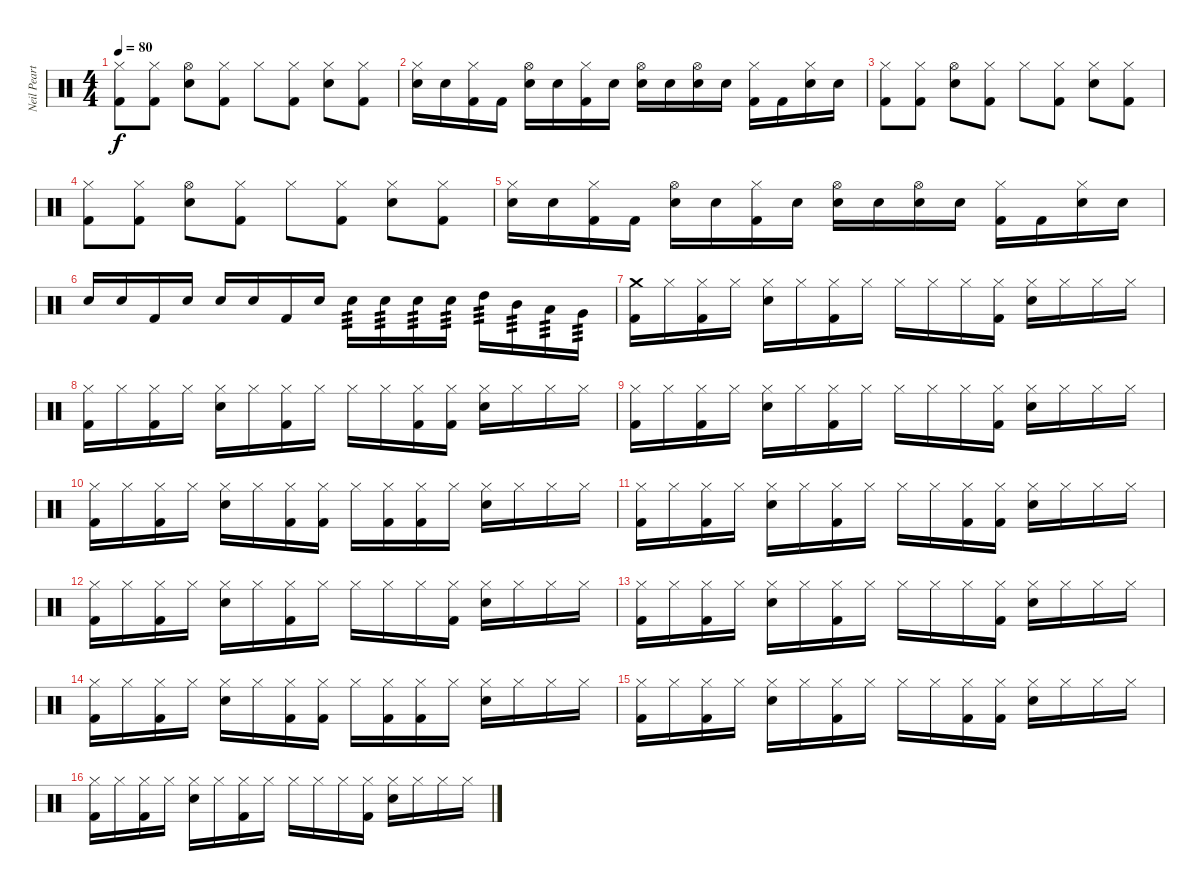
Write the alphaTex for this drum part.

\track ("Neil Peart" "Neil Peart") {instrument percussion}
\staff {score}
\articulation defaults
\ts (4 4)
\tempo 80
\clef neutral
\ks c
("Hi-Hat (closed)" "Kick (hit) 2").8{dy f} ("Hi-Hat (closed)" "Kick (hit) 2").8 ("Hi-Hat (open)" "Electric Snare (hit)").8 ("Hi-Hat (closed)" "Kick (hit) 2").8 "Hi-Hat (closed)".8 ("Hi-Hat (closed)" "Kick (hit) 2").8 ("Hi-Hat (closed)" "Electric Snare (hit)").8 ("Hi-Hat (closed)" "Kick (hit) 2").8 |
("Hi-Hat (closed)" "Electric Snare (hit)").16 "Snare (hit)"{x}.16 ("Hi-Hat (closed)" "Kick (hit) 2").16 "Kick (hit) 2".16 ("Hi-Hat (open)" "Electric Snare (hit)").16 "Snare (hit)"{x}.16 ("Hi-Hat (closed)" "Kick (hit) 2").16 "Snare (hit)"{x}.16 ("Hi-Hat (open)" "Electric Snare (hit)").16 "Snare (hit)"{x}.16 ("Hi-Hat (open)" "Electric Snare (hit)").16 "Snare (hit)"{x}.16 ("Hi-Hat (closed)" "Kick (hit) 2").16 "Kick (hit) 2".16 ("Hi-Hat (closed)" "Electric Snare (hit)").16 "Snare (hit)"{x}.16 |
("Hi-Hat (closed)" "Kick (hit) 2").8 ("Hi-Hat (closed)" "Kick (hit) 2").8 ("Hi-Hat (open)" "Electric Snare (hit)").8 ("Hi-Hat (closed)" "Kick (hit) 2").8 "Hi-Hat (closed)".8 ("Hi-Hat (closed)" "Kick (hit) 2").8 ("Hi-Hat (closed)" "Electric Snare (hit)").8 ("Hi-Hat (closed)" "Kick (hit) 2").8 |
("Hi-Hat (closed)" "Kick (hit) 2").8 ("Hi-Hat (closed)" "Kick (hit) 2").8 ("Hi-Hat (open)" "Electric Snare (hit)").8 ("Hi-Hat (closed)" "Kick (hit) 2").8 "Hi-Hat (closed)".8 ("Hi-Hat (closed)" "Kick (hit) 2").8 ("Hi-Hat (closed)" "Electric Snare (hit)").8 ("Hi-Hat (closed)" "Kick (hit) 2").8 |
("Hi-Hat (closed)" "Electric Snare (hit)").16 "Snare (hit)"{x}.16 ("Hi-Hat (closed)" "Kick (hit) 2").16 "Kick (hit) 2".16 ("Hi-Hat (open)" "Electric Snare (hit)").16 "Snare (hit)"{x}.16 ("Hi-Hat (closed)" "Kick (hit) 2").16 "Snare (hit)"{x}.16 ("Hi-Hat (open)" "Electric Snare (hit)").16 "Snare (hit)"{x}.16 ("Hi-Hat (open)" "Electric Snare (hit)").16 "Snare (hit)"{x}.16 ("Hi-Hat (closed)" "Kick (hit) 2").16 "Kick (hit) 2".16 ("Hi-Hat (closed)" "Electric Snare (hit)").16 "Snare (hit)"{x}.16 |
"Electric Snare (hit)".16 "Electric Snare (hit)".16 "Kick (hit) 2".16 "Snare (hit)"{x}.16 "Electric Snare (hit)".16 "Electric Snare (hit)".16 "Kick (hit) 2".16 "Snare (hit)"{x}.16 "Electric Snare (hit)".16{tp 3} "Electric Snare (hit)".16{tp 3} "Electric Snare (hit)".16{tp 3} "Electric Snare (hit)".16{tp 3} "High Tom (hit)".16{tp 3} "Mid Tom (hit)".16{tp 3} "Low Tom (hit)".16{tp 3} "Very Low Tom (hit)".16{tp 3} |
("Crash medium (hit)" "Kick (hit) 2").16 "Hi-Hat (closed)".16 ("Hi-Hat (closed)" "Kick (hit) 2").16 "Hi-Hat (closed)".16 ("Hi-Hat (closed)" "Electric Snare (hit)").16 "Hi-Hat (closed)".16 ("Hi-Hat (closed)" "Kick (hit) 2").16 "Hi-Hat (closed)".16 "Hi-Hat (closed)".16 "Hi-Hat (closed)".16 "Hi-Hat (closed)".16 ("Hi-Hat (closed)" "Kick (hit) 2").16 ("Hi-Hat (closed)" "Electric Snare (hit)").16 "Hi-Hat (closed)".16 "Hi-Hat (closed)".16 "Hi-Hat (closed)".16 |
("Hi-Hat (closed)" "Kick (hit) 2").16 "Hi-Hat (closed)".16 ("Hi-Hat (closed)" "Kick (hit) 2").16 "Hi-Hat (closed)".16 ("Hi-Hat (closed)" "Electric Snare (hit)").16 "Hi-Hat (closed)".16 ("Hi-Hat (closed)" "Kick (hit) 2").16 "Hi-Hat (closed)".16 "Hi-Hat (closed)".16 "Hi-Hat (closed)".16 ("Hi-Hat (closed)" "Kick (hit) 2").16 ("Hi-Hat (closed)" "Kick (hit) 2").16 ("Hi-Hat (closed)" "Electric Snare (hit)").16 "Hi-Hat (closed)".16 "Hi-Hat (closed)".16 "Hi-Hat (closed)".16 |
("Hi-Hat (closed)" "Kick (hit) 2").16 "Hi-Hat (closed)".16 ("Hi-Hat (closed)" "Kick (hit) 2").16 "Hi-Hat (closed)".16 ("Hi-Hat (closed)" "Electric Snare (hit)").16 "Hi-Hat (closed)".16 ("Hi-Hat (closed)" "Kick (hit) 2").16 "Hi-Hat (closed)".16 "Hi-Hat (closed)".16 "Hi-Hat (closed)".16 "Hi-Hat (closed)".16 ("Hi-Hat (closed)" "Kick (hit) 2").16 ("Hi-Hat (closed)" "Electric Snare (hit)").16 "Hi-Hat (closed)".16 "Hi-Hat (closed)".16 "Hi-Hat (closed)".16 |
("Hi-Hat (closed)" "Kick (hit) 2").16 "Hi-Hat (closed)".16 ("Hi-Hat (closed)" "Kick (hit) 2").16 "Hi-Hat (closed)".16 ("Hi-Hat (closed)" "Electric Snare (hit)").16 "Hi-Hat (closed)".16 ("Hi-Hat (closed)" "Kick (hit) 2").16 ("Hi-Hat (closed)" "Kick (hit) 2").16 "Hi-Hat (closed)".16 ("Hi-Hat (closed)" "Kick (hit) 2").16 ("Hi-Hat (closed)" "Kick (hit) 2").16 "Hi-Hat (closed)".16 ("Hi-Hat (closed)" "Electric Snare (hit)").16 "Hi-Hat (closed)".16 "Hi-Hat (closed)".16 "Hi-Hat (closed)".16 |
("Hi-Hat (closed)" "Kick (hit) 2").16 "Hi-Hat (closed)".16 ("Hi-Hat (closed)" "Kick (hit) 2").16 "Hi-Hat (closed)".16 ("Hi-Hat (closed)" "Electric Snare (hit)").16 "Hi-Hat (closed)".16 ("Hi-Hat (closed)" "Kick (hit) 2").16 "Hi-Hat (closed)".16 "Hi-Hat (closed)".16 "Hi-Hat (closed)".16 ("Hi-Hat (closed)" "Kick (hit) 2").16 ("Hi-Hat (closed)" "Kick (hit) 2").16 ("Hi-Hat (closed)" "Electric Snare (hit)").16 "Hi-Hat (closed)".16 "Hi-Hat (closed)".16 "Hi-Hat (closed)".16 |
("Hi-Hat (closed)" "Kick (hit) 2").16 "Hi-Hat (closed)".16 ("Hi-Hat (closed)" "Kick (hit) 2").16 "Hi-Hat (closed)".16 ("Hi-Hat (closed)" "Electric Snare (hit)").16 "Hi-Hat (closed)".16 ("Hi-Hat (closed)" "Kick (hit) 2").16 "Hi-Hat (closed)".16 "Hi-Hat (closed)".16 "Hi-Hat (closed)".16 "Hi-Hat (closed)".16 ("Hi-Hat (closed)" "Kick (hit) 2").16 ("Hi-Hat (closed)" "Electric Snare (hit)").16 "Hi-Hat (closed)".16 "Hi-Hat (closed)".16 "Hi-Hat (closed)".16 |
("Hi-Hat (closed)" "Kick (hit) 2").16 "Hi-Hat (closed)".16 ("Hi-Hat (closed)" "Kick (hit) 2").16 "Hi-Hat (closed)".16 ("Hi-Hat (closed)" "Electric Snare (hit)").16 "Hi-Hat (closed)".16 ("Hi-Hat (closed)" "Kick (hit) 2").16 "Hi-Hat (closed)".16 "Hi-Hat (closed)".16 "Hi-Hat (closed)".16 "Hi-Hat (closed)".16 ("Hi-Hat (closed)" "Kick (hit) 2").16 ("Hi-Hat (closed)" "Electric Snare (hit)").16 "Hi-Hat (closed)".16 "Hi-Hat (closed)".16 "Hi-Hat (closed)".16 |
("Hi-Hat (closed)" "Kick (hit) 2").16 "Hi-Hat (closed)".16 ("Hi-Hat (closed)" "Kick (hit) 2").16 "Hi-Hat (closed)".16 ("Hi-Hat (closed)" "Electric Snare (hit)").16 "Hi-Hat (closed)".16 ("Hi-Hat (closed)" "Kick (hit) 2").16 ("Hi-Hat (closed)" "Kick (hit) 2").16 "Hi-Hat (closed)".16 ("Hi-Hat (closed)" "Kick (hit) 2").16 ("Hi-Hat (closed)" "Kick (hit) 2").16 "Hi-Hat (closed)".16 ("Hi-Hat (closed)" "Electric Snare (hit)").16 "Hi-Hat (closed)".16 "Hi-Hat (closed)".16 "Hi-Hat (closed)".16 |
("Hi-Hat (closed)" "Kick (hit) 2").16 "Hi-Hat (closed)".16 ("Hi-Hat (closed)" "Kick (hit) 2").16 "Hi-Hat (closed)".16 ("Hi-Hat (closed)" "Electric Snare (hit)").16 "Hi-Hat (closed)".16 ("Hi-Hat (closed)" "Kick (hit) 2").16 "Hi-Hat (closed)".16 "Hi-Hat (closed)".16 "Hi-Hat (closed)".16 ("Hi-Hat (closed)" "Kick (hit) 2").16 ("Hi-Hat (closed)" "Kick (hit) 2").16 ("Hi-Hat (closed)" "Electric Snare (hit)").16 "Hi-Hat (closed)".16 "Hi-Hat (closed)".16 "Hi-Hat (closed)".16 |
("Hi-Hat (closed)" "Kick (hit) 2").16 "Hi-Hat (closed)".16 ("Hi-Hat (closed)" "Kick (hit) 2").16 "Hi-Hat (closed)".16 ("Hi-Hat (closed)" "Electric Snare (hit)").16 "Hi-Hat (closed)".16 ("Hi-Hat (closed)" "Kick (hit) 2").16 "Hi-Hat (closed)".16 "Hi-Hat (closed)".16 "Hi-Hat (closed)".16 "Hi-Hat (closed)".16 ("Hi-Hat (closed)" "Kick (hit) 2").16 ("Hi-Hat (closed)" "Electric Snare (hit)").16 "Hi-Hat (closed)".16 "Hi-Hat (closed)".16 "Hi-Hat (closed)".16
